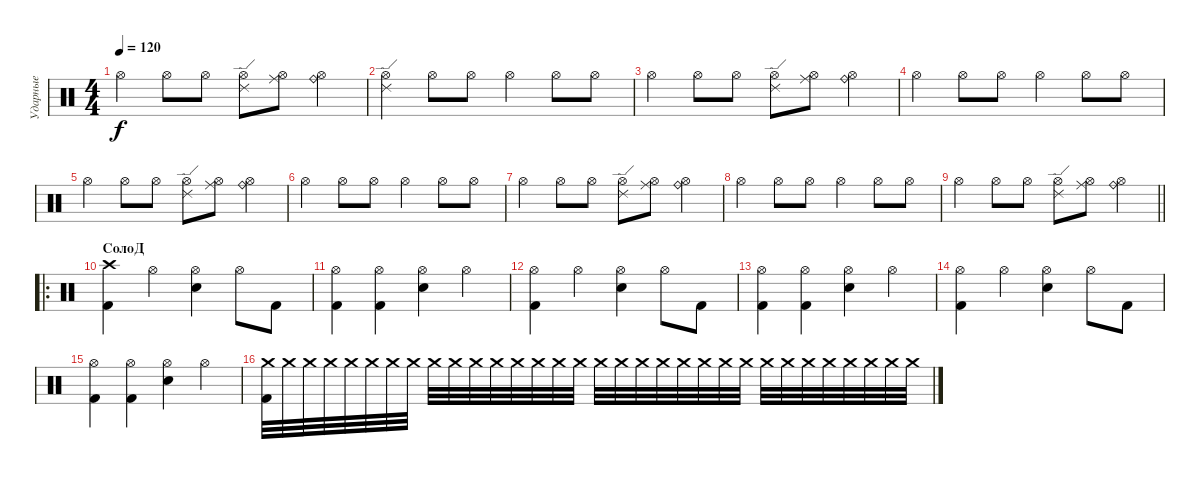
\track ("Ударные" "Ударные") {instrument percussion}
\staff {score}
\articulation defaults
\ts (4 4)
\tempo 120
\clef neutral
\ks c "Hi-Hat (open)".4{dy f} "Hi-Hat (open)".8 "Hi-Hat (open)".8
("Hi-Hat (open)" "Ride (edge) 2").8 ("Hi-Hat (open)" "Ride (middle)").8 ("Hi-Hat (open)" "Ride (bell)").4 |
("Hi-Hat (open)" "Ride (edge) 2").4 "Hi-Hat (open)".8 "Hi-Hat (open)".8 "Hi-Hat (open)".4 "Hi-Hat (open)".8 "Hi-Hat (open)".8 |
"Hi-Hat (open)".4 "Hi-Hat (open)".8 "Hi-Hat (open)".8 ("Hi-Hat (open)" "Ride (edge) 2").8 ("Hi-Hat (open)" "Ride (middle)").8 ("Hi-Hat (open)" "Ride (bell)").4 |
"Hi-Hat (open)".4 "Hi-Hat (open)".8 "Hi-Hat (open)".8 "Hi-Hat (open)".4 "Hi-Hat (open)".8 "Hi-Hat (open)".8 |
"Hi-Hat (open)".4 "Hi-Hat (open)".8 "Hi-Hat (open)".8 ("Hi-Hat (open)" "Ride (edge) 2").8 ("Hi-Hat (open)" "Ride (middle)").8 ("Hi-Hat (open)" "Ride (bell)").4 |
"Hi-Hat (open)".4 "Hi-Hat (open)".8 "Hi-Hat (open)".8 "Hi-Hat (open)".4 "Hi-Hat (open)".8 "Hi-Hat (open)".8 |
"Hi-Hat (open)".4 "Hi-Hat (open)".8 "Hi-Hat (open)".8 ("Hi-Hat (open)" "Ride (edge) 2").8 ("Hi-Hat (open)" "Ride (middle)").8 ("Hi-Hat (open)" "Ride (bell)").4 |
"Hi-Hat (open)".4 "Hi-Hat (open)".8 "Hi-Hat (open)".8 "Hi-Hat (open)".4 "Hi-Hat (open)".8 "Hi-Hat (open)".8 |
\barLineRight lightlight "Hi-Hat (open)".4 "Hi-Hat (open)".8 "Hi-Hat (open)".8
("Hi-Hat (open)" "Ride (edge) 2").8 ("Hi-Hat (open)" "Ride (middle)").8 ("Hi-Hat (open)" "Ride (bell)").4 |
\ro
\section ("" "СолоД")
("Kick (hit) 2" "Crash high (hit)").4{volume 16} "Hi-Hat (open)".4 ("Snare (hit) 2" "Hi-Hat (open)").4 "Hi-Hat (open)".8 "Kick (hit) 2".8 |
("Kick (hit) 2" "Hi-Hat (open)").4 ("Kick (hit) 2" "Hi-Hat (open)").4 ("Snare (hit) 2" "Hi-Hat (open)").4 "Hi-Hat (open)".4 |
("Kick (hit) 2" "Hi-Hat (open)").4 "Hi-Hat (open)".4 ("Snare (hit) 2" "Hi-Hat (open)").4 "Hi-Hat (open)".8 "Kick (hit) 2".8 |
("Kick (hit) 2" "Hi-Hat (open)").4 ("Kick (hit) 2" "Hi-Hat (open)").4 ("Snare (hit) 2" "Hi-Hat (open)").4 "Hi-Hat (open)".4 |
("Hi-Hat (open)" "Kick (hit) 2").4 "Hi-Hat (open)".4 ("Snare (hit) 2" "Hi-Hat (open)").4 "Hi-Hat (open)".8 "Kick (hit) 2".8 |
("Kick (hit) 2" "Hi-Hat (open)").4 ("Kick (hit) 2" "Hi-Hat (open)").4 ("Snare (hit) 2" "Hi-Hat (open)").4 "Hi-Hat (open)".4 |
("Crash medium (hit)" "Kick (hit) 2").32{volume 1} "Crash medium (hit)".32 "Crash medium (hit)".32 "Crash medium (hit)".32{volume 3} "Crash medium (hit)".32 "Crash medium (hit)".32 "Crash medium (hit)".32{volume 4} "Crash medium (hit)".32 "Crash medium (hit)".32 "Crash medium (hit)".32{volume 5} "Crash medium (hit)".32 "Crash medium (hit)".32 "Crash medium (hit)".32{volume 6} "Crash medium (hit)".32 "Crash medium (hit)".32 "Crash medium (hit)".32{volume 7} "Crash medium (hit)".32 "Crash medium (hit)".32 "Crash medium (hit)".32 "Crash medium (hit)".32{volume 7} "Crash medium (hit)".32 "Crash medium (hit)".32 "Crash medium (hit)".32 "Crash medium (hit)".32{volume 8} "Crash medium (hit)".32 "Crash medium (hit)".32 "Crash medium (hit)".32 "Crash medium (hit)".32{volume 9} "Crash medium (hit)".32 "Crash medium (hit)".32 "Crash medium (hit)".32 "Crash medium (hit)".32{volume 9}
